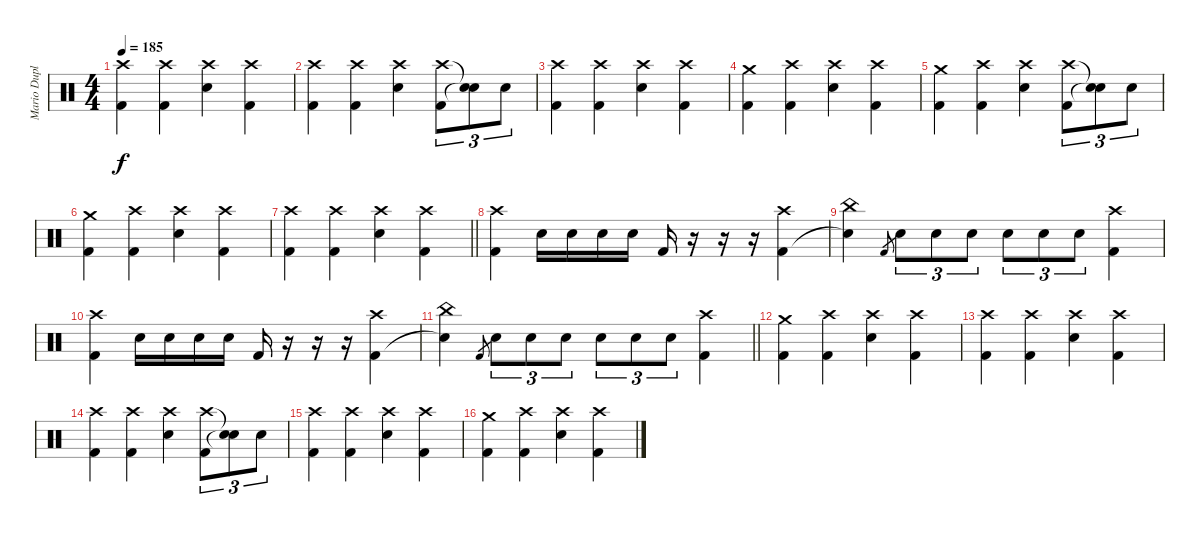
\track ("Mario Duplantier" "Mario Dupl") {instrument percussion}
\staff {score}
\articulation defaults
\ts (4 4)
\tempo 185
\clef neutral
\ks c
("Crash high (hit)" "Kick (hit) 2").4{dy f} ("Crash high (hit)" "Kick (hit) 2").4 ("Crash high (hit)" "Electric Snare (hit)").4 ("Crash high (hit)" "Kick (hit) 2").4 |
("Crash high (hit)" "Kick (hit) 2").4 ("Crash high (hit)" "Kick (hit) 2").4 ("Crash high (hit)" "Electric Snare (hit)").4 ("Crash high (hit)" "Kick (hit) 2").8{tu (3 2)} ("Snare (hit)"{t} "Snare (hit)"{t}).8{tu (3 2)} "Electric Snare (hit)".8{tu (3 2)} |
("Crash high (hit)" "Kick (hit) 2").4 ("Crash high (hit)" "Kick (hit) 2").4 ("Crash high (hit)" "Electric Snare (hit)").4 ("Crash high (hit)" "Kick (hit) 2").4 |
("Crash medium (hit)" "Kick (hit) 2").4 ("Crash high (hit)" "Kick (hit) 2").4 ("Crash high (hit)" "Electric Snare (hit)").4 ("Crash high (hit)" "Kick (hit) 2").4 |
("Crash medium (hit)" "Kick (hit) 2").4 ("Crash high (hit)" "Kick (hit) 2").4 ("Crash high (hit)" "Electric Snare (hit)").4 ("Crash high (hit)" "Kick (hit) 2").8{tu (3 2)} ("Snare (hit)"{t} "Snare (hit)"{t}).8{tu (3 2)} "Electric Snare (hit)".8{tu (3 2)} |
("Crash medium (hit)" "Kick (hit) 2").4 ("Crash high (hit)" "Kick (hit) 2").4 ("Crash high (hit)" "Electric Snare (hit)").4 ("Crash high (hit)" "Kick (hit) 2").4 |
\barLineRight lightlight
("Crash high (hit)" "Kick (hit) 2").4 ("Crash high (hit)" "Kick (hit) 2").4 ("Crash high (hit)" "Electric Snare (hit)").4 ("Crash high (hit)" "Kick (hit) 2").4 |
("Crash high (hit)" "Kick (hit) 2").4 "Electric Snare (hit)".16 "Electric Snare (hit)".16 "Electric Snare (hit)".16 "Electric Snare (hit)".16 "Kick (hit) 2".16 r.16 r.16 r.16 ("Crash high (hit)" "Kick (hit) 2").4 |
("China (hit)" "Snare (hit)"{t}).4 "Kick (hit) 2".8{gr} "Electric Snare (hit)".8{tu (3 2)} "Electric Snare (hit)".8{tu (3 2)} "Electric Snare (hit)".8{tu (3 2)} "Electric Snare (hit)".8{tu (3 2)} "Electric Snare (hit)".8{tu (3 2)} "Electric Snare (hit)".8{tu (3 2)} ("Crash high (hit)" "Kick (hit) 2").4 |
("Crash high (hit)" "Kick (hit) 2").4 "Electric Snare (hit)".16 "Electric Snare (hit)".16 "Electric Snare (hit)".16 "Electric Snare (hit)".16 "Kick (hit) 2".16 r.16 r.16 r.16 ("Crash high (hit)" "Kick (hit) 2").4 |
\barLineRight lightlight
("China (hit)" "Snare (hit)"{t}).4 "Kick (hit) 2".8{gr} "Electric Snare (hit)".8{tu (3 2)} "Electric Snare (hit)".8{tu (3 2)} "Electric Snare (hit)".8{tu (3 2)} "Electric Snare (hit)".8{tu (3 2)} "Electric Snare (hit)".8{tu (3 2)} "Electric Snare (hit)".8{tu (3 2)} ("Crash high (hit)" "Kick (hit) 2").4 |
("Crash medium (hit)" "Kick (hit) 2").4 ("Crash high (hit)" "Kick (hit) 2").4 ("Crash high (hit)" "Electric Snare (hit)").4 ("Crash high (hit)" "Kick (hit) 2").4 |
("Crash high (hit)" "Kick (hit) 2").4 ("Crash high (hit)" "Kick (hit) 2").4 ("Crash high (hit)" "Electric Snare (hit)").4 ("Crash high (hit)" "Kick (hit) 2").4 |
("Crash high (hit)" "Kick (hit) 2").4 ("Crash high (hit)" "Kick (hit) 2").4 ("Crash high (hit)" "Electric Snare (hit)").4 ("Crash high (hit)" "Kick (hit) 2").8{tu (3 2)} ("Snare (hit)"{t} "Snare (hit)"{t}).8{tu (3 2)} "Electric Snare (hit)".8{tu (3 2)} |
("Crash high (hit)" "Kick (hit) 2").4 ("Crash high (hit)" "Kick (hit) 2").4 ("Crash high (hit)" "Electric Snare (hit)").4 ("Crash high (hit)" "Kick (hit) 2").4 |
("Crash medium (hit)" "Kick (hit) 2").4 ("Crash high (hit)" "Kick (hit) 2").4 ("Crash high (hit)" "Electric Snare (hit)").4 ("Crash high (hit)" "Kick (hit) 2").4
